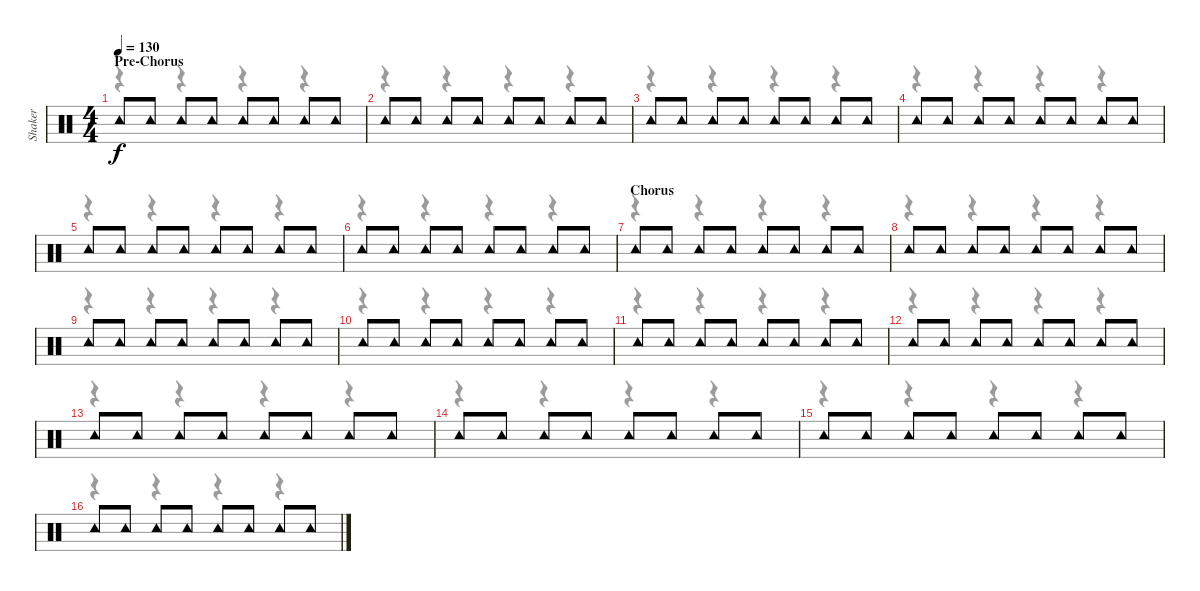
\track ("Shaker" "Shaker") {instrument percussion}
\staff {score}
\articulation defaults
\voice
\ts (4 4)
\section ("" "Pre-Chorus")
\tempo 130
\clef neutral
\ks c "Tambourine (hit)".8{dy f} "Tambourine (hit)".8 "Tambourine (hit)".8 "Tambourine (hit)".8 "Tambourine (hit)".8 "Tambourine (hit)".8 "Tambourine (hit)".8 "Tambourine (hit)".8
|
"Tambourine (hit)".8 "Tambourine (hit)".8 "Tambourine (hit)".8 "Tambourine (hit)".8 "Tambourine (hit)".8 "Tambourine (hit)".8 "Tambourine (hit)".8 "Tambourine (hit)".8 |
"Tambourine (hit)".8 "Tambourine (hit)".8 "Tambourine (hit)".8 "Tambourine (hit)".8 "Tambourine (hit)".8 "Tambourine (hit)".8 "Tambourine (hit)".8 "Tambourine (hit)".8 |
"Tambourine (hit)".8 "Tambourine (hit)".8 "Tambourine (hit)".8 "Tambourine (hit)".8 "Tambourine (hit)".8 "Tambourine (hit)".8 "Tambourine (hit)".8 "Tambourine (hit)".8 |
"Tambourine (hit)".8 "Tambourine (hit)".8 "Tambourine (hit)".8 "Tambourine (hit)".8 "Tambourine (hit)".8 "Tambourine (hit)".8 "Tambourine (hit)".8 "Tambourine (hit)".8 |
"Tambourine (hit)".8 "Tambourine (hit)".8 "Tambourine (hit)".8 "Tambourine (hit)".8 "Tambourine (hit)".8 "Tambourine (hit)".8 "Tambourine (hit)".8 "Tambourine (hit)".8 |
\section ("" "Chorus")
"Tambourine (hit)".8 "Tambourine (hit)".8 "Tambourine (hit)".8 "Tambourine (hit)".8 "Tambourine (hit)".8 "Tambourine (hit)".8 "Tambourine (hit)".8 "Tambourine (hit)".8 |
"Tambourine (hit)".8 "Tambourine (hit)".8 "Tambourine (hit)".8 "Tambourine (hit)".8 "Tambourine (hit)".8 "Tambourine (hit)".8 "Tambourine (hit)".8 "Tambourine (hit)".8 |
"Tambourine (hit)".8 "Tambourine (hit)".8 "Tambourine (hit)".8 "Tambourine (hit)".8 "Tambourine (hit)".8 "Tambourine (hit)".8 "Tambourine (hit)".8 "Tambourine (hit)".8 |
"Tambourine (hit)".8 "Tambourine (hit)".8 "Tambourine (hit)".8 "Tambourine (hit)".8 "Tambourine (hit)".8 "Tambourine (hit)".8 "Tambourine (hit)".8 "Tambourine (hit)".8 |
"Tambourine (hit)".8 "Tambourine (hit)".8 "Tambourine (hit)".8 "Tambourine (hit)".8 "Tambourine (hit)".8 "Tambourine (hit)".8 "Tambourine (hit)".8 "Tambourine (hit)".8 |
"Tambourine (hit)".8 "Tambourine (hit)".8 "Tambourine (hit)".8 "Tambourine (hit)".8 "Tambourine (hit)".8 "Tambourine (hit)".8 "Tambourine (hit)".8 "Tambourine (hit)".8 |
"Tambourine (hit)".8 "Tambourine (hit)".8 "Tambourine (hit)".8 "Tambourine (hit)".8 "Tambourine (hit)".8 "Tambourine (hit)".8 "Tambourine (hit)".8 "Tambourine (hit)".8 |
"Tambourine (hit)".8 "Tambourine (hit)".8 "Tambourine (hit)".8 "Tambourine (hit)".8 "Tambourine (hit)".8 "Tambourine (hit)".8 "Tambourine (hit)".8 "Tambourine (hit)".8 |
"Tambourine (hit)".8 "Tambourine (hit)".8 "Tambourine (hit)".8 "Tambourine (hit)".8 "Tambourine (hit)".8 "Tambourine (hit)".8 "Tambourine (hit)".8 "Tambourine (hit)".8 |
"Tambourine (hit)".8 "Tambourine (hit)".8 "Tambourine (hit)".8 "Tambourine (hit)".8 "Tambourine (hit)".8 "Tambourine (hit)".8 "Tambourine (hit)".8 "Tambourine (hit)".8
\voice
\clef neutral
\ottava regular
\simile none
\ks c
r.4{dy f} r.4 r.4 r.4 |
r.4 r.4 r.4 r.4 |
r.4 r.4 r.4 r.4 |
r.4 r.4 r.4 r.4 |
r.4 r.4 r.4 r.4 |
r.4 r.4 r.4 r.4 |
r.4 r.4 r.4 r.4 |
r.4 r.4 r.4 r.4 |
r.4 r.4 r.4 r.4 |
r.4 r.4 r.4 r.4 |
r.4 r.4 r.4 r.4 |
r.4 r.4 r.4 r.4 |
r.4 r.4 r.4 r.4 |
r.4 r.4 r.4 r.4 |
r.4 r.4 r.4 r.4 |
r.4 r.4 r.4 r.4
